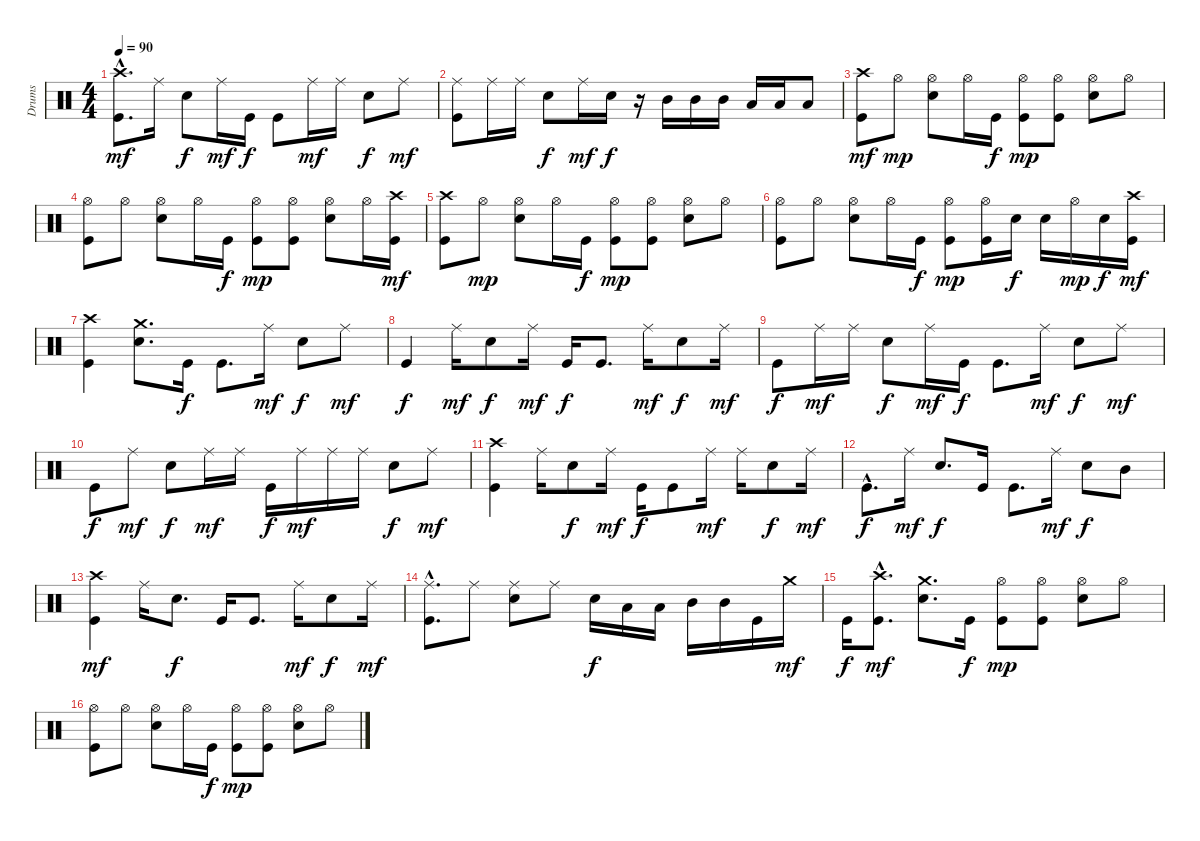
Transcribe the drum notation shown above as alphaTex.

\track ("Drums" "Drums") {instrument percussion}
\staff {score}
\articulation defaults
\ts (4 4)
\tempo 90
\clef neutral
\ks c
("Crash high (hit)"{hac} "Kick (hit)"{hac}).8{d dy mf} "Ride (middle)".16 "Snare (hit) 2".8{dy f} "Ride (middle)".16{dy mf} "Kick (hit)".16{dy f} "Kick (hit)".8 "Ride (middle)".16{dy mf} "Ride (middle)".16 "Snare (hit) 2".8{dy f} "Ride (middle)".8{dy mf} |
("Ride (middle)" "Kick (hit)").8 "Ride (middle)".16 "Ride (middle)".16 "Snare (hit) 2".8{dy f} "Ride (middle)".16{dy mf} "Snare (hit) 2".16{dy f} r.16 "Mid Tom (hit)".16 "Mid Tom (hit)".16 "Mid Tom (hit)".16 "Low Tom (hit)".16 "Low Tom (hit)".16 "Low Tom (hit)".8 |
("Crash high (hit)" "Kick (hit)").8{dy mf} "Hi-Hat (open)".8{dy mp} ("Hi-Hat (open)" "Snare (hit) 2").8 "Hi-Hat (open)".16 "Kick (hit)".16{dy f} ("Hi-Hat (open)" "Kick (hit)").8{dy mp} ("Hi-Hat (open)" "Kick (hit)").8 ("Hi-Hat (open)" "Snare (hit) 2").8 "Hi-Hat (open)".8 |
("Hi-Hat (open)" "Kick (hit)").8 "Hi-Hat (open)".8 ("Hi-Hat (open)" "Snare (hit) 2").8 "Hi-Hat (open)".16 "Kick (hit)".16{dy f} ("Hi-Hat (open)" "Kick (hit)").8{dy mp} ("Hi-Hat (open)" "Kick (hit)").8 ("Hi-Hat (open)" "Snare (hit) 2").8 "Hi-Hat (open)".16 ("Crash high (hit)" "Kick (hit)").16{dy mf} |
("Crash high (hit)" "Kick (hit)").8 "Hi-Hat (open)".8{dy mp} ("Hi-Hat (open)" "Snare (hit) 2").8 "Hi-Hat (open)".16 "Kick (hit)".16{dy f} ("Hi-Hat (open)" "Kick (hit)").8{dy mp} ("Hi-Hat (open)" "Kick (hit)").8 ("Hi-Hat (open)" "Snare (hit) 2").8 "Hi-Hat (open)".8 |
("Hi-Hat (open)" "Kick (hit)").8 "Hi-Hat (open)".8 ("Hi-Hat (open)" "Snare (hit) 2").8 "Hi-Hat (open)".16 "Kick (hit)".16{dy f} ("Hi-Hat (open)" "Kick (hit)").8{dy mp} ("Hi-Hat (open)" "Kick (hit)").16 "Snare (hit) 2".16{dy f} "Snare (hit) 2".16 "Hi-Hat (open)".16{dy mp} "Snare (hit) 2".16{dy f} ("Crash high (hit)" "Kick (hit)").16{dy mf} |
("Crash high (hit)" "Kick (hit)").4 ("Crash medium (hit)" "Snare (hit) 2").8{d} "Kick (hit)".16{dy f} "Kick (hit)".8{d} "Ride (middle)".16{dy mf} "Snare (hit) 2".8{dy f} "Ride (middle)".8{dy mf} |
"Kick (hit)".4{dy f} "Ride (middle)".16{dy mf} "Snare (hit) 2".8{dy f} "Ride (middle)".16{dy mf} "Kick (hit)".16{dy f} "Kick (hit)".8{d} "Ride (middle)".16{dy mf} "Snare (hit) 2".8{dy f} "Ride (middle)".16{dy mf} |
"Kick (hit)".8{dy f} "Ride (middle)".16{dy mf} "Ride (middle)".16 "Snare (hit) 2".8{dy f} "Ride (middle)".16{dy mf} "Kick (hit)".16{dy f} "Kick (hit)".8{d} "Ride (middle)".16{dy mf} "Snare (hit) 2".8{dy f} "Ride (middle)".8{dy mf} |
"Kick (hit)".8{dy f} "Ride (middle)".8{dy mf} "Snare (hit) 2".8{dy f} "Ride (middle)".16{dy mf} "Ride (middle)".16 "Kick (hit)".16{dy f} "Ride (middle)".16{dy mf} "Ride (middle)".16 "Ride (middle)".16 "Snare (hit) 2".8{dy f} "Ride (middle)".8{dy mf} |
("Crash high (hit)" "Kick (hit)").4 "Ride (middle)".16 "Snare (hit) 2".8{dy f} "Ride (middle)".16{dy mf} "Kick (hit)".16{dy f} "Kick (hit)".8 "Ride (middle)".16{dy mf} "Ride (middle)".16 "Snare (hit) 2".8{dy f} "Ride (middle)".16{dy mf} |
"Kick (hit)"{hac}.8{d dy f} "Ride (middle)".16{dy mf} "Snare (hit) 2".8{d dy f} "Kick (hit)".16 "Kick (hit)".8{d} "Ride (middle)".16{dy mf} "Snare (hit) 2".8{dy f} "Mid Tom (hit)".8 |
("Crash high (hit)" "Kick (hit)").4{dy mf} "Ride (middle)".16 "Snare (hit) 2".8{d dy f} "Kick (hit)".16 "Kick (hit)".8{d} "Ride (middle)".16{dy mf} "Snare (hit) 2".8{dy f} "Ride (middle)".16{dy mf} |
("Ride (middle)"{hac} "Kick (hit)"{hac}).8{d} "Ride (middle)".8 ("Ride (middle)" "Snare (hit) 2").8 "Ride (middle)".8 "Snare (hit) 2".16{dy f} "Low Tom (hit)".16 "Low Tom (hit)".16 "Mid Tom (hit)".16 "Mid Tom (hit)".16 "Kick (hit)".16 "Crash medium (hit)".16{dy mf} |
"Kick (hit)".16{dy f} ("Crash high (hit)"{hac} "Kick (hit)"{hac}).8{d dy mf} ("Crash medium (hit)" "Snare (hit) 2").8{d} "Kick (hit)".16{dy f} ("Hi-Hat (open)" "Kick (hit)").8{dy mp} ("Hi-Hat (open)" "Kick (hit)").8 ("Hi-Hat (open)" "Snare (hit) 2").8 "Hi-Hat (open)".8 |
("Hi-Hat (open)" "Kick (hit)").8 "Hi-Hat (open)".8 ("Hi-Hat (open)" "Snare (hit) 2").8 "Hi-Hat (open)".16 "Kick (hit)".16{dy f} ("Hi-Hat (open)" "Kick (hit)").8{dy mp} ("Hi-Hat (open)" "Kick (hit)").8 ("Hi-Hat (open)" "Snare (hit) 2").8 "Hi-Hat (open)".8
